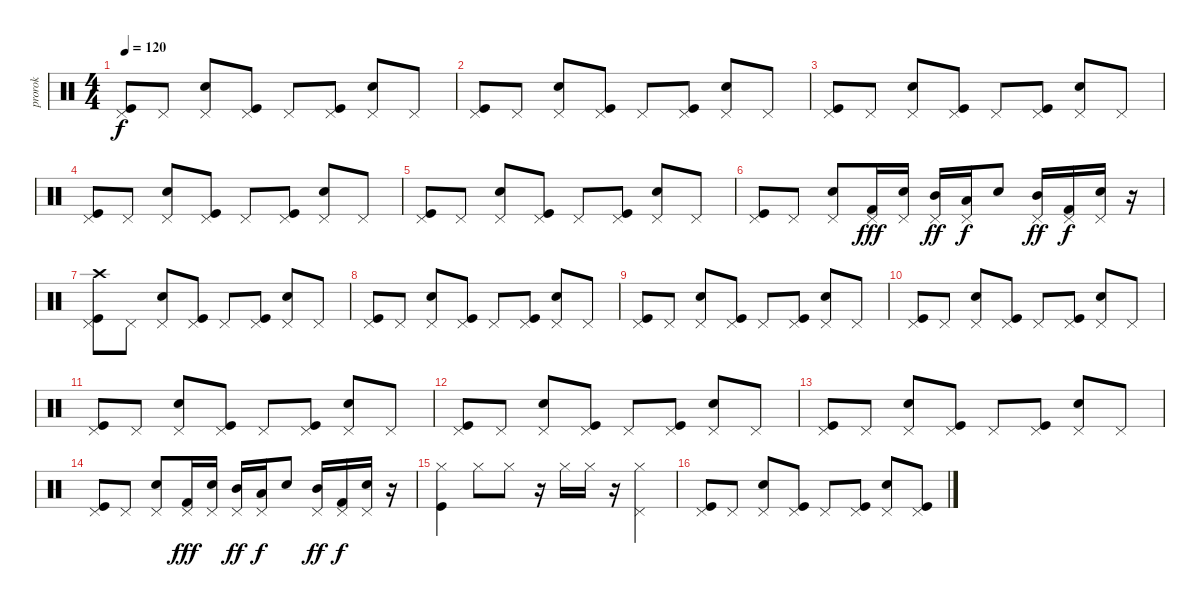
\track ("prorok" "prorok") {instrument percussion}
\staff {score}
\articulation defaults
\ts (4 4)
\tempo 120
\clef neutral
\ks c
("Kick (hit)" "Pedal Hi-Hat (hit)").8{dy f} "Pedal Hi-Hat (hit)".8 ("Electric Snare (hit)" "Pedal Hi-Hat (hit)").8 ("Kick (hit)" "Pedal Hi-Hat (hit)").8 "Pedal Hi-Hat (hit)".8 ("Kick (hit)" "Pedal Hi-Hat (hit)").8 ("Electric Snare (hit)" "Pedal Hi-Hat (hit)").8 "Pedal Hi-Hat (hit)".8 |
("Kick (hit)" "Pedal Hi-Hat (hit)").8 "Pedal Hi-Hat (hit)".8 ("Electric Snare (hit)" "Pedal Hi-Hat (hit)").8 ("Kick (hit)" "Pedal Hi-Hat (hit)").8 "Pedal Hi-Hat (hit)".8 ("Kick (hit)" "Pedal Hi-Hat (hit)").8 ("Electric Snare (hit)" "Pedal Hi-Hat (hit)").8 "Pedal Hi-Hat (hit)".8 |
("Kick (hit)" "Pedal Hi-Hat (hit)").8 "Pedal Hi-Hat (hit)".8 ("Electric Snare (hit)" "Pedal Hi-Hat (hit)").8 ("Kick (hit)" "Pedal Hi-Hat (hit)").8 "Pedal Hi-Hat (hit)".8 ("Kick (hit)" "Pedal Hi-Hat (hit)").8 ("Electric Snare (hit)" "Pedal Hi-Hat (hit)").8 "Pedal Hi-Hat (hit)".8 |
("Kick (hit)" "Pedal Hi-Hat (hit)").8 "Pedal Hi-Hat (hit)".8 ("Electric Snare (hit)" "Pedal Hi-Hat (hit)").8 ("Kick (hit)" "Pedal Hi-Hat (hit)").8 "Pedal Hi-Hat (hit)".8 ("Kick (hit)" "Pedal Hi-Hat (hit)").8 ("Electric Snare (hit)" "Pedal Hi-Hat (hit)").8 "Pedal Hi-Hat (hit)".8 |
("Kick (hit)" "Pedal Hi-Hat (hit)").8 "Pedal Hi-Hat (hit)".8 ("Electric Snare (hit)" "Pedal Hi-Hat (hit)").8 ("Kick (hit)" "Pedal Hi-Hat (hit)").8 "Pedal Hi-Hat (hit)".8 ("Kick (hit)" "Pedal Hi-Hat (hit)").8 ("Electric Snare (hit)" "Pedal Hi-Hat (hit)").8 "Pedal Hi-Hat (hit)".8 |
("Kick (hit)" "Pedal Hi-Hat (hit)").8 "Pedal Hi-Hat (hit)".8 ("Electric Snare (hit)" "Pedal Hi-Hat (hit)").8 ("Kick (hit) 2" "Pedal Hi-Hat (hit)").16{dy fff} ("Electric Snare (hit)" "Pedal Hi-Hat (hit)").16 ("Mid Tom (hit)" "Pedal Hi-Hat (hit)").16{dy ff} ("Low Tom (hit)" "Pedal Hi-Hat (hit)").16{dy f} "Electric Snare (hit)".8 ("Mid Tom (hit)" "Pedal Hi-Hat (hit)").16{dy ff} ("Kick (hit) 2" "Pedal Hi-Hat (hit)").16{dy f} ("Electric Snare (hit)" "Pedal Hi-Hat (hit)").16 r.16 |
("Kick (hit)" "Pedal Hi-Hat (hit)" "Crash high (hit)").8 "Pedal Hi-Hat (hit)".8 ("Electric Snare (hit)" "Pedal Hi-Hat (hit)").8 ("Kick (hit)" "Pedal Hi-Hat (hit)").8 "Pedal Hi-Hat (hit)".8 ("Kick (hit)" "Pedal Hi-Hat (hit)").8 ("Electric Snare (hit)" "Pedal Hi-Hat (hit)").8 "Pedal Hi-Hat (hit)".8 |
("Kick (hit)" "Pedal Hi-Hat (hit)").8 "Pedal Hi-Hat (hit)".8 ("Electric Snare (hit)" "Pedal Hi-Hat (hit)").8 ("Kick (hit)" "Pedal Hi-Hat (hit)").8 "Pedal Hi-Hat (hit)".8 ("Kick (hit)" "Pedal Hi-Hat (hit)").8 ("Electric Snare (hit)" "Pedal Hi-Hat (hit)").8 "Pedal Hi-Hat (hit)".8 |
("Kick (hit)" "Pedal Hi-Hat (hit)").8 "Pedal Hi-Hat (hit)".8 ("Electric Snare (hit)" "Pedal Hi-Hat (hit)").8 ("Kick (hit)" "Pedal Hi-Hat (hit)").8 "Pedal Hi-Hat (hit)".8 ("Kick (hit)" "Pedal Hi-Hat (hit)").8 ("Electric Snare (hit)" "Pedal Hi-Hat (hit)").8 "Pedal Hi-Hat (hit)".8 |
("Kick (hit)" "Pedal Hi-Hat (hit)").8 "Pedal Hi-Hat (hit)".8 ("Electric Snare (hit)" "Pedal Hi-Hat (hit)").8 ("Kick (hit)" "Pedal Hi-Hat (hit)").8 "Pedal Hi-Hat (hit)".8 ("Kick (hit)" "Pedal Hi-Hat (hit)").8 ("Electric Snare (hit)" "Pedal Hi-Hat (hit)").8 "Pedal Hi-Hat (hit)".8 |
("Kick (hit)" "Pedal Hi-Hat (hit)").8 "Pedal Hi-Hat (hit)".8 ("Electric Snare (hit)" "Pedal Hi-Hat (hit)").8 ("Kick (hit)" "Pedal Hi-Hat (hit)").8 "Pedal Hi-Hat (hit)".8 ("Kick (hit)" "Pedal Hi-Hat (hit)").8 ("Electric Snare (hit)" "Pedal Hi-Hat (hit)").8 "Pedal Hi-Hat (hit)".8 |
("Kick (hit)" "Pedal Hi-Hat (hit)").8 "Pedal Hi-Hat (hit)".8 ("Electric Snare (hit)" "Pedal Hi-Hat (hit)").8 ("Kick (hit)" "Pedal Hi-Hat (hit)").8 "Pedal Hi-Hat (hit)".8 ("Kick (hit)" "Pedal Hi-Hat (hit)").8 ("Electric Snare (hit)" "Pedal Hi-Hat (hit)").8 "Pedal Hi-Hat (hit)".8 |
("Kick (hit)" "Pedal Hi-Hat (hit)").8 "Pedal Hi-Hat (hit)".8 ("Electric Snare (hit)" "Pedal Hi-Hat (hit)").8 ("Kick (hit)" "Pedal Hi-Hat (hit)").8 "Pedal Hi-Hat (hit)".8 ("Kick (hit)" "Pedal Hi-Hat (hit)").8 ("Electric Snare (hit)" "Pedal Hi-Hat (hit)").8 "Pedal Hi-Hat (hit)".8 |
("Kick (hit)" "Pedal Hi-Hat (hit)").8 "Pedal Hi-Hat (hit)".8 ("Electric Snare (hit)" "Pedal Hi-Hat (hit)").8 ("Kick (hit) 2" "Pedal Hi-Hat (hit)").16{dy fff} ("Electric Snare (hit)" "Pedal Hi-Hat (hit)").16 ("Mid Tom (hit)" "Pedal Hi-Hat (hit)").16{dy ff} ("Low Tom (hit)" "Pedal Hi-Hat (hit)").16{dy f} "Electric Snare (hit)".8 ("Mid Tom (hit)" "Pedal Hi-Hat (hit)").16{dy ff} ("Kick (hit) 2" "Pedal Hi-Hat (hit)").16{dy f} ("Electric Snare (hit)" "Pedal Hi-Hat (hit)").16 r.16 |
("Hi-Hat (closed)" "Kick (hit)").4 "Hi-Hat (closed)".8 "Hi-Hat (closed)".8 r.16 "Hi-Hat (closed)".16 "Hi-Hat (closed)".16 r.16 ("Hi-Hat (closed)" "Pedal Hi-Hat (hit)").4 |
("Kick (hit)" "Pedal Hi-Hat (hit)").8 "Pedal Hi-Hat (hit)".8 ("Electric Snare (hit)" "Pedal Hi-Hat (hit)").8 ("Kick (hit)" "Pedal Hi-Hat (hit)").8 "Pedal Hi-Hat (hit)".8 ("Kick (hit)" "Pedal Hi-Hat (hit)").8 ("Electric Snare (hit)" "Pedal Hi-Hat (hit)").8 ("Kick (hit)" "Pedal Hi-Hat (hit)").8
